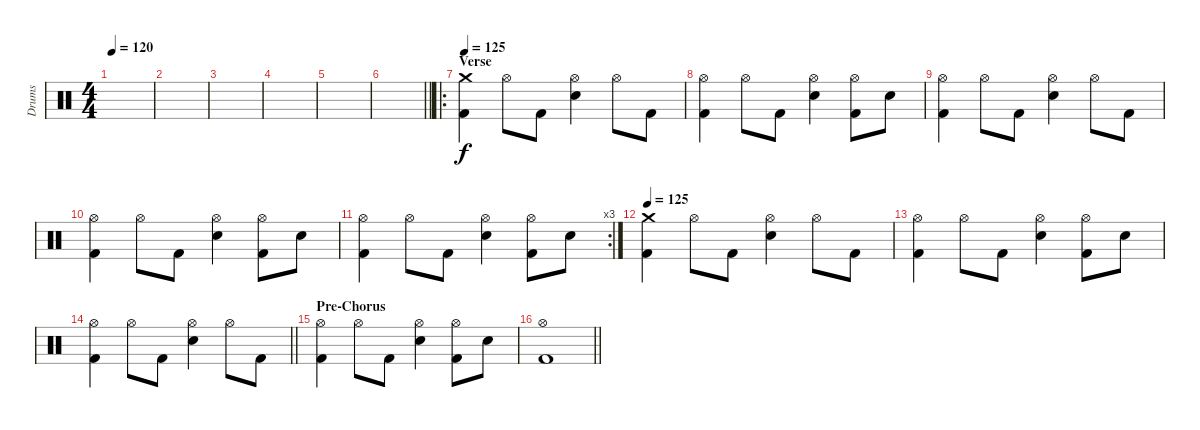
\track ("Drums" "Drums") {instrument percussion}
\staff {score}
\articulation defaults
\ts (4 4)
\tempo 120
\clef neutral
\ks c
|
|
|
|
|
\barLineRight lightlight
|
\ro
\section ("" "Verse")
\tempo 125
("Crash medium (hit)" "Kick (hit) 2").4 "Hi-Hat (open)".8 "Kick (hit) 2".8 ("Hi-Hat (open)" "Snare (hit) 2").4 "Hi-Hat (open)".8 "Kick (hit) 2".8 |
("Hi-Hat (open)" "Kick (hit) 2").4 "Hi-Hat (open)".8 "Kick (hit) 2".8 ("Hi-Hat (open)" "Snare (hit) 2").4 ("Hi-Hat (open)" "Kick (hit) 2").8 "Snare (hit) 2".8 |
("Hi-Hat (open)" "Kick (hit) 2").4 "Hi-Hat (open)".8 "Kick (hit) 2".8 ("Hi-Hat (open)" "Snare (hit) 2").4 "Hi-Hat (open)".8 "Kick (hit) 2".8 |
("Hi-Hat (open)" "Kick (hit) 2").4 "Hi-Hat (open)".8 "Kick (hit) 2".8 ("Hi-Hat (open)" "Snare (hit) 2").4 ("Hi-Hat (open)" "Kick (hit) 2").8 "Snare (hit) 2".8 |
\rc 3
("Hi-Hat (open)" "Kick (hit) 2").4 "Hi-Hat (open)".8 "Kick (hit) 2".8 ("Hi-Hat (open)" "Snare (hit) 2").4 ("Hi-Hat (open)" "Kick (hit) 2").8 "Snare (hit) 2".8 |
\tempo 125
("Crash medium (hit)" "Kick (hit) 2").4 "Hi-Hat (open)".8 "Kick (hit) 2".8 ("Hi-Hat (open)" "Snare (hit) 2").4 "Hi-Hat (open)".8 "Kick (hit) 2".8 |
("Hi-Hat (open)" "Kick (hit) 2").4 "Hi-Hat (open)".8 "Kick (hit) 2".8 ("Hi-Hat (open)" "Snare (hit) 2").4 ("Hi-Hat (open)" "Kick (hit) 2").8 "Snare (hit) 2".8 |
\barLineRight lightlight
("Hi-Hat (open)" "Kick (hit) 2").4 "Hi-Hat (open)".8 "Kick (hit) 2".8 ("Hi-Hat (open)" "Snare (hit) 2").4 "Hi-Hat (open)".8 "Kick (hit) 2".8 |
\section ("" "Pre-Chorus")
("Hi-Hat (open)" "Kick (hit) 2").4 "Hi-Hat (open)".8 "Kick (hit) 2".8 ("Hi-Hat (open)" "Snare (hit) 2").4 ("Hi-Hat (open)" "Kick (hit) 2").8 "Snare (hit) 2".8 |
\barLineRight lightlight
("Hi-Hat (open)" "Kick (hit) 2").1
